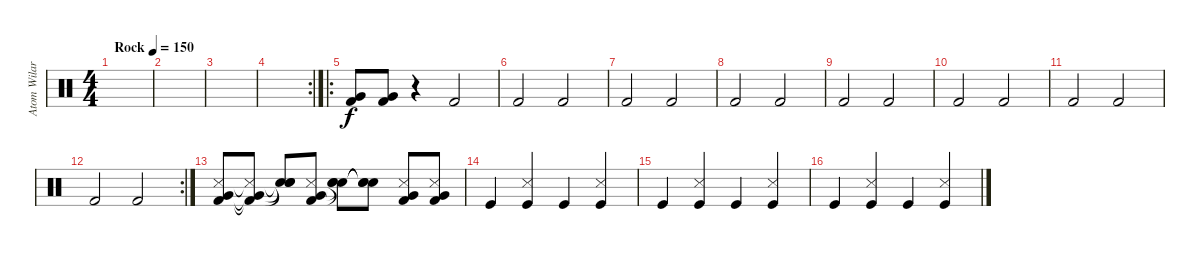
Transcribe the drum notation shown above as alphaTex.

\track ("Atom Wilard" "Atom Wilar") {instrument percussion}
\staff {score}
\articulation defaults
\ts (4 4)
\tempo (150 "Rock")
\clef neutral
\ks c
|
|
|
\rc 2
|
\ro
("Very Low Tom (hit)" "Kick (hit) 2").8 ("Very Low Tom (hit)" "Kick (hit) 2").8 r.4 "Kick (hit) 2".2 |
"Kick (hit) 2".2 "Kick (hit) 2".2 |
"Kick (hit) 2".2 "Kick (hit) 2".2 |
"Kick (hit) 2".2 "Kick (hit) 2".2 |
"Kick (hit) 2".2 "Kick (hit) 2".2 |
"Kick (hit) 2".2 "Kick (hit) 2".2 |
"Kick (hit) 2".2 "Kick (hit) 2".2 |
\rc 2 "Kick (hit) 2".2 "Kick (hit) 2".2
|
("Snare (side stick) 3" "Very Low Tom (hit)" "Kick (hit) 2").8 ("Snare (side stick) 3"{t} "Very Low Tom (hit)"{t} "Kick (hit) 2"{t}).8 ("Snare (hit)"{t} "Snare (hit)"{t} "Snare (hit)"{t}).8 ("Snare (side stick) 3" "Very Low Tom (hit)" "Kick (hit) 2").8 ("Snare (hit)"{t} "Snare (hit)"{t} "Snare (hit)"{t}).8 ("Snare (hit)"{t} "Snare (hit)"{t} "Snare (hit)"{t}).8 ("Snare (side stick) 3" "Very Low Tom (hit)" "Kick (hit) 2").8 ("Snare (side stick) 3" "Very Low Tom (hit)" "Kick (hit) 2").8 |
"Kick (hit)".4 ("Snare (side stick) 3" "Kick (hit)").4 "Kick (hit)".4 ("Snare (side stick) 3" "Kick (hit)").4 |
"Kick (hit)".4 ("Snare (side stick) 3" "Kick (hit)").4 "Kick (hit)".4 ("Snare (side stick) 3" "Kick (hit)").4 |
"Kick (hit)".4 ("Snare (side stick) 3" "Kick (hit)").4 "Kick (hit)".4 ("Snare (side stick) 3" "Kick (hit)").4
